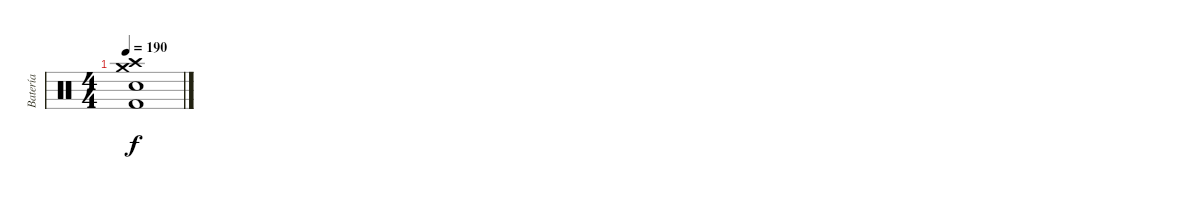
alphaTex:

\track ("Batería" "Batería") {instrument percussion}
\staff {score}
\articulation defaults
\ts (4 4)
\tempo 190
\clef neutral
\ks c
("Crash medium (hit)" "Crash high (hit)" "Snare (hit) 2" "Kick (hit) 2").1{dy f}
